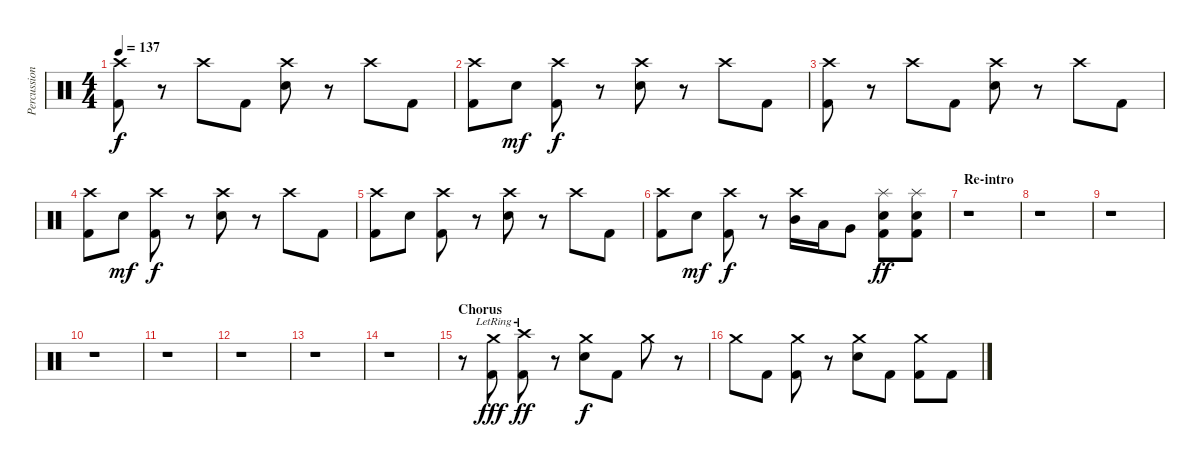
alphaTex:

\track ("Percussions" "Percussion") {instrument percussion}
\staff {score}
\articulation defaults
\ts (4 4)
\tempo 137
\clef neutral
\ks c
("Crash high (hit)" "Kick (hit) 2").8{dy f} r.8 "Crash high (hit)".8 "Kick (hit) 2".8 ("Crash high (hit)" "Electric Snare (hit)").8 r.8 "Crash high (hit)".8 "Kick (hit) 2".8 |
("Crash high (hit)" "Kick (hit) 2").8 "Electric Snare (hit)".8{dy mf} ("Crash high (hit)" "Kick (hit) 2").8{dy f} r.8 ("Crash high (hit)" "Electric Snare (hit)").8 r.8 "Crash high (hit)".8 "Kick (hit) 2".8 |
("Crash high (hit)" "Kick (hit) 2").8 r.8 "Crash high (hit)".8 "Kick (hit) 2".8 ("Crash high (hit)" "Electric Snare (hit)").8 r.8 "Crash high (hit)".8 "Kick (hit) 2".8 |
("Crash high (hit)" "Kick (hit) 2").8 "Electric Snare (hit)".8{dy mf} ("Crash high (hit)" "Kick (hit) 2").8{dy f} r.8 ("Crash high (hit)" "Electric Snare (hit)").8 r.8 "Crash high (hit)".8 "Kick (hit) 2".8 |
("Crash high (hit)" "Kick (hit) 2").8 "Electric Snare (hit)".8 ("Crash high (hit)" "Kick (hit) 2").8 r.8 ("Crash high (hit)" "Electric Snare (hit)").8 r.8 "Crash high (hit)".8 "Kick (hit) 2".8 |
("Crash high (hit)" "Kick (hit) 2").8 "Electric Snare (hit)".8{dy mf} ("Crash high (hit)" "Kick (hit) 2").8{dy f} r.8 ("Crash high (hit)" "Mid Tom (hit)").16 "Low Tom (hit)".16 "Very Low Tom (hit)".8 ("Splash (hit)" "Electric Snare (hit)" "Kick (hit) 2").8{dy ff} ("Splash (hit)" "Electric Snare (hit)" "Kick (hit) 2").8 |
\section ("" "Re-intro")
r.1 |
r.1 |
r.1 |
r.1 |
r.1 |
r.1 |
r.1 |
r.1 |
\section ("" "Chorus")
r.8 ("Crash medium (hit)"{lr} "Kick (hit) 2").8{dy fff} ("Crash high (hit)"{lr} "Kick (hit) 2").8{dy ff} r.8 ("Crash medium (hit)" "Electric Snare (hit)").8{dy f} "Kick (hit) 2".8 "Crash medium (hit)".8 r.8 |
"Crash medium (hit)".8 "Kick (hit) 2".8 ("Crash medium (hit)" "Kick (hit) 2").8 r.8 ("Crash medium (hit)" "Electric Snare (hit)").8 "Kick (hit) 2".8 ("Crash medium (hit)" "Kick (hit) 2").8 "Kick (hit) 2".8
